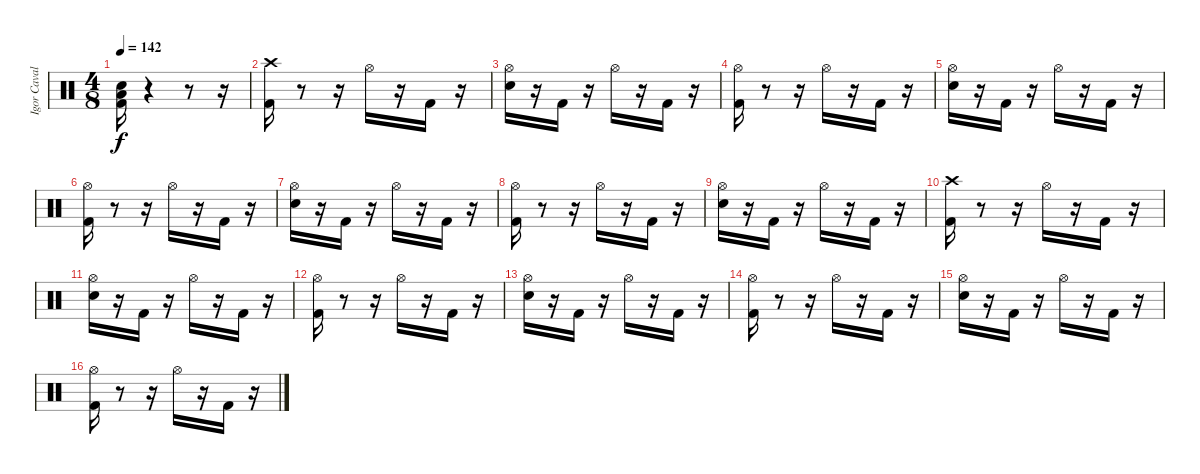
\track ("Igor Cavalera" "Igor Caval") {instrument percussion}
\staff {score}
\articulation defaults
\ts (4 8)
\tempo 142
\clef neutral
\ks c
("Electric Snare (hit)" "Kick (hit) 2" "Low Floor Tom (hit)").16{dy f} r.4 r.8 r.16 |
("Kick (hit) 2" "Crash high (hit)").16 r.8 r.16 "Hi-Hat (open)".16 r.16 "Kick (hit) 2".16 r.16 |
("Electric Snare (hit)" "Hi-Hat (open)").16 r.16 "Kick (hit) 2".16 r.16 "Hi-Hat (open)".16 r.16 "Kick (hit) 2".16 r.16 |
("Kick (hit) 2" "Hi-Hat (open)").16 r.8 r.16 "Hi-Hat (open)".16 r.16 "Kick (hit) 2".16 r.16 |
("Electric Snare (hit)" "Hi-Hat (open)").16 r.16 "Kick (hit) 2".16 r.16 "Hi-Hat (open)".16 r.16 "Kick (hit) 2".16 r.16 |
("Kick (hit) 2" "Hi-Hat (open)").16 r.8 r.16 "Hi-Hat (open)".16 r.16 "Kick (hit) 2".16 r.16 |
("Electric Snare (hit)" "Hi-Hat (open)").16 r.16 "Kick (hit) 2".16 r.16 "Hi-Hat (open)".16 r.16 "Kick (hit) 2".16 r.16 |
("Kick (hit) 2" "Hi-Hat (open)").16 r.8 r.16 "Hi-Hat (open)".16 r.16 "Kick (hit) 2".16 r.16 |
("Electric Snare (hit)" "Hi-Hat (open)").16 r.16 "Kick (hit) 2".16 r.16 "Hi-Hat (open)".16 r.16 "Kick (hit) 2".16 r.16 |
("Kick (hit) 2" "Crash high (hit)").16 r.8 r.16 "Hi-Hat (open)".16 r.16 "Kick (hit) 2".16 r.16 |
("Electric Snare (hit)" "Hi-Hat (open)").16 r.16 "Kick (hit) 2".16 r.16 "Hi-Hat (open)".16 r.16 "Kick (hit) 2".16 r.16 |
("Kick (hit) 2" "Hi-Hat (open)").16 r.8 r.16 "Hi-Hat (open)".16 r.16 "Kick (hit) 2".16 r.16 |
("Electric Snare (hit)" "Hi-Hat (open)").16 r.16 "Kick (hit) 2".16 r.16 "Hi-Hat (open)".16 r.16 "Kick (hit) 2".16 r.16 |
("Kick (hit) 2" "Hi-Hat (open)").16 r.8 r.16 "Hi-Hat (open)".16 r.16 "Kick (hit) 2".16 r.16 |
("Electric Snare (hit)" "Hi-Hat (open)").16 r.16 "Kick (hit) 2".16 r.16 "Hi-Hat (open)".16 r.16 "Kick (hit) 2".16 r.16 |
("Kick (hit) 2" "Hi-Hat (open)").16 r.8 r.16 "Hi-Hat (open)".16 r.16 "Kick (hit) 2".16 r.16
